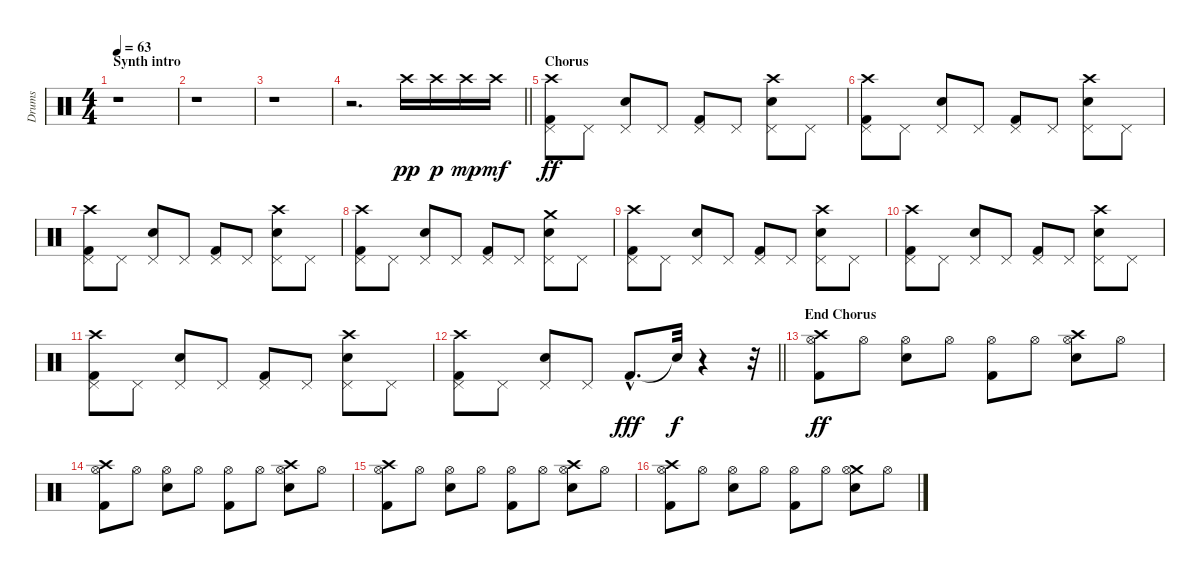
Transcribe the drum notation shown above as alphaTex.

\track ("Drums" "Drums") {instrument percussion}
\staff {score}
\articulation defaults
\ts (4 4)
\section ("" "Synth intro")
\tempo 63
\clef neutral
\ks c
r.1{dy f} |
r.1 |
r.1 |
\barLineRight lightlight
r.2{d} "Crash high (hit)".16{dy pp} "Crash high (hit)".16{dy p} "Crash high (hit)".16{dy mp} "Crash high (hit)".16{dy mf} |
\section ("" "Chorus")
("Kick (hit) 2" "Crash high (hit)" "Pedal Hi-Hat (hit)").8{dy ff} "Pedal Hi-Hat (hit)".8 ("Electric Snare (hit)" "Pedal Hi-Hat (hit)").8 "Pedal Hi-Hat (hit)".8 ("Kick (hit) 2" "Pedal Hi-Hat (hit)").8 "Pedal Hi-Hat (hit)".8 ("Electric Snare (hit)" "Crash high (hit)" "Pedal Hi-Hat (hit)").8 "Pedal Hi-Hat (hit)".8 |
("Kick (hit) 2" "Crash high (hit)" "Pedal Hi-Hat (hit)").8 "Pedal Hi-Hat (hit)".8 ("Electric Snare (hit)" "Pedal Hi-Hat (hit)").8 "Pedal Hi-Hat (hit)".8 ("Kick (hit) 2" "Pedal Hi-Hat (hit)").8 "Pedal Hi-Hat (hit)".8 ("Electric Snare (hit)" "Crash high (hit)" "Pedal Hi-Hat (hit)").8 "Pedal Hi-Hat (hit)".8 |
("Kick (hit) 2" "Crash high (hit)" "Pedal Hi-Hat (hit)").8 "Pedal Hi-Hat (hit)".8 ("Electric Snare (hit)" "Pedal Hi-Hat (hit)").8 "Pedal Hi-Hat (hit)".8 ("Kick (hit) 2" "Pedal Hi-Hat (hit)").8 "Pedal Hi-Hat (hit)".8 ("Electric Snare (hit)" "Crash high (hit)" "Pedal Hi-Hat (hit)").8 "Pedal Hi-Hat (hit)".8 |
("Kick (hit) 2" "Crash high (hit)" "Pedal Hi-Hat (hit)").8 "Pedal Hi-Hat (hit)".8 ("Electric Snare (hit)" "Pedal Hi-Hat (hit)").8 "Pedal Hi-Hat (hit)".8 ("Kick (hit) 2" "Pedal Hi-Hat (hit)").8 "Pedal Hi-Hat (hit)".8 ("Electric Snare (hit)" "Crash medium (hit)" "Pedal Hi-Hat (hit)").8 "Pedal Hi-Hat (hit)".8 |
("Kick (hit) 2" "Crash high (hit)" "Pedal Hi-Hat (hit)").8 "Pedal Hi-Hat (hit)".8 ("Electric Snare (hit)" "Pedal Hi-Hat (hit)").8 "Pedal Hi-Hat (hit)".8 ("Kick (hit) 2" "Pedal Hi-Hat (hit)").8 "Pedal Hi-Hat (hit)".8 ("Electric Snare (hit)" "Crash high (hit)" "Pedal Hi-Hat (hit)").8 "Pedal Hi-Hat (hit)".8 |
("Kick (hit) 2" "Crash high (hit)" "Pedal Hi-Hat (hit)").8 "Pedal Hi-Hat (hit)".8 ("Electric Snare (hit)" "Pedal Hi-Hat (hit)").8 "Pedal Hi-Hat (hit)".8 ("Kick (hit) 2" "Pedal Hi-Hat (hit)").8 "Pedal Hi-Hat (hit)".8 ("Electric Snare (hit)" "Crash high (hit)" "Pedal Hi-Hat (hit)").8 "Pedal Hi-Hat (hit)".8 |
("Kick (hit) 2" "Crash high (hit)" "Pedal Hi-Hat (hit)").8 "Pedal Hi-Hat (hit)".8 ("Electric Snare (hit)" "Pedal Hi-Hat (hit)").8 "Pedal Hi-Hat (hit)".8 ("Kick (hit) 2" "Pedal Hi-Hat (hit)").8 "Pedal Hi-Hat (hit)".8 ("Electric Snare (hit)" "Crash high (hit)" "Pedal Hi-Hat (hit)").8 "Pedal Hi-Hat (hit)".8 |
\barLineRight lightlight
("Kick (hit) 2" "Crash high (hit)" "Pedal Hi-Hat (hit)").8 "Pedal Hi-Hat (hit)".8 ("Electric Snare (hit)" "Pedal Hi-Hat (hit)").8 "Pedal Hi-Hat (hit)".8 "Kick (hit) 2"{hac}.8{d dy fff} "Snare (hit)"{t}.32{dy f} r.4 r.32 |
\section ("" "End Chorus")
("Kick (hit) 2" "Crash high (hit)" "Hi-Hat (open)").8{dy ff} "Hi-Hat (open)".8 ("Electric Snare (hit)" "Hi-Hat (open)").8 "Hi-Hat (open)".8 ("Kick (hit) 2" "Hi-Hat (open)").8 "Hi-Hat (open)".8 ("Electric Snare (hit)" "Crash high (hit)" "Hi-Hat (open)").8 "Hi-Hat (open)".8 |
("Kick (hit) 2" "Crash high (hit)" "Hi-Hat (open)").8 "Hi-Hat (open)".8 ("Electric Snare (hit)" "Hi-Hat (open)").8 "Hi-Hat (open)".8 ("Kick (hit) 2" "Hi-Hat (open)").8 "Hi-Hat (open)".8 ("Electric Snare (hit)" "Crash high (hit)" "Hi-Hat (open)").8 "Hi-Hat (open)".8 |
("Kick (hit) 2" "Crash high (hit)" "Hi-Hat (open)").8 "Hi-Hat (open)".8 ("Electric Snare (hit)" "Hi-Hat (open)").8 "Hi-Hat (open)".8 ("Kick (hit) 2" "Hi-Hat (open)").8 "Hi-Hat (open)".8 ("Electric Snare (hit)" "Crash high (hit)" "Hi-Hat (open)").8 "Hi-Hat (open)".8 |
("Kick (hit) 2" "Crash high (hit)" "Hi-Hat (open)").8 "Hi-Hat (open)".8 ("Electric Snare (hit)" "Hi-Hat (open)").8 "Hi-Hat (open)".8 ("Kick (hit) 2" "Hi-Hat (open)").8 "Hi-Hat (open)".8 ("Electric Snare (hit)" "Crash medium (hit)" "Hi-Hat (open)").8 "Hi-Hat (open)".8
